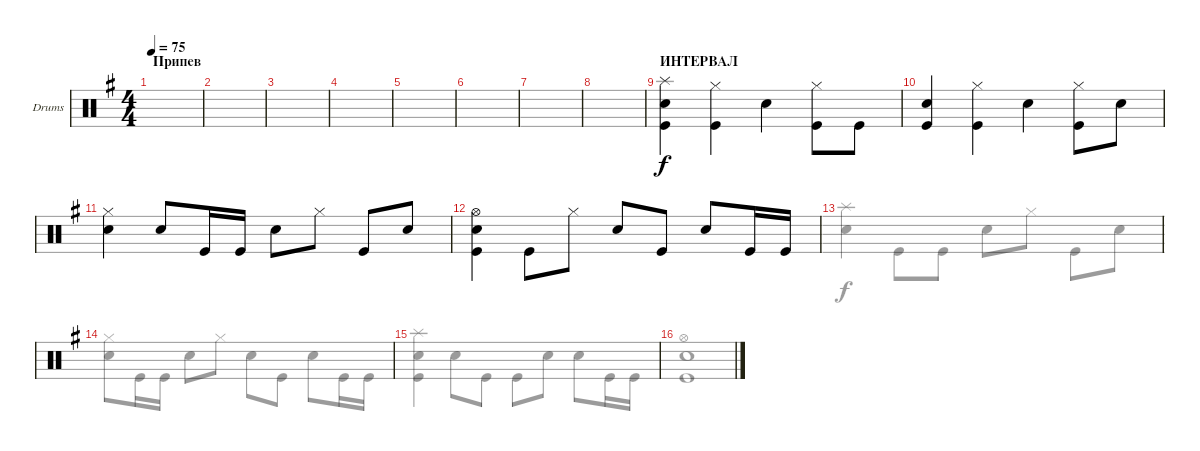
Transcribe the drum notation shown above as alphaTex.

\bracketExtendMode groupsimilarinstruments
\firstSystemTrackNameOrientation horizontal
\otherSystemsTrackNameOrientation horizontal
\track ("Drumkit" "Drums") {instrument percussion}
\staff {score}
\articulation defaults
\voice
\ts (4 4)
\section ("" "Припев")
\tempo 75
\clef neutral
\ks eminor
|
|
|
|
|
|
|
|
\section ("" "ИНТЕРВАЛ")
("Snare (hit) 2" "Kick (hit)" "Splash (hit)").4 ("Hi-Hat (closed)" "Kick (hit)").4 "Snare (hit) 2".4 ("Hi-Hat (closed)" "Kick (hit)").8 "Kick (hit)".8 |
("Snare (hit) 2" "Kick (hit)").4 ("Hi-Hat (closed)" "Kick (hit)").4 "Snare (hit) 2".4 ("Hi-Hat (closed)" "Kick (hit)").8 "Snare (hit) 2".8 |
("Snare (hit) 2" "Hi-Hat (closed)").4 "Snare (hit) 2".8 "Kick (hit)".16 "Kick (hit)".16 "Snare (hit) 2".8 "Hi-Hat (closed)".8 "Kick (hit)".8 "Snare (hit) 2".8 |
("Snare (hit) 2" "Kick (hit)" "Hi-Hat (open)").4 "Kick (hit)".8 "Hi-Hat (closed)".8 "Snare (hit) 2".8 "Kick (hit)".8 "Snare (hit) 2".8 "Kick (hit)".16 "Kick (hit)".16 |
|
|
|
\voice
\clef neutral
\ottava regular
\simile none
\ks eminor
|
|
|
|
|
|
|
|
|
|
|
|
("Snare (hit) 2" "Splash (hit)").4 "Kick (hit)".8 "Kick (hit)".8 "Snare (hit) 2".8 "Hi-Hat (closed)".8 "Kick (hit)".8 "Snare (hit) 2".8 |
("Snare (hit) 2" "Hi-Hat (closed)").8 "Kick (hit)".16 "Kick (hit)".16 "Snare (hit) 2".8 "Hi-Hat (closed)".8 "Snare (hit) 2".8 "Kick (hit)".8 "Snare (hit) 2".8 "Kick (hit)".16 "Kick (hit)".16 |
("Splash (hit)" "Kick (hit)" "Snare (hit) 2").4 "Snare (hit) 2".8 "Kick (hit)".8 "Kick (hit)".8 "Snare (hit) 2".8 "Snare (hit) 2".8 "Kick (hit)".16 "Kick (hit)".16 |
("Hi-Hat (open)" "Snare (hit) 2" "Kick (hit)").1
